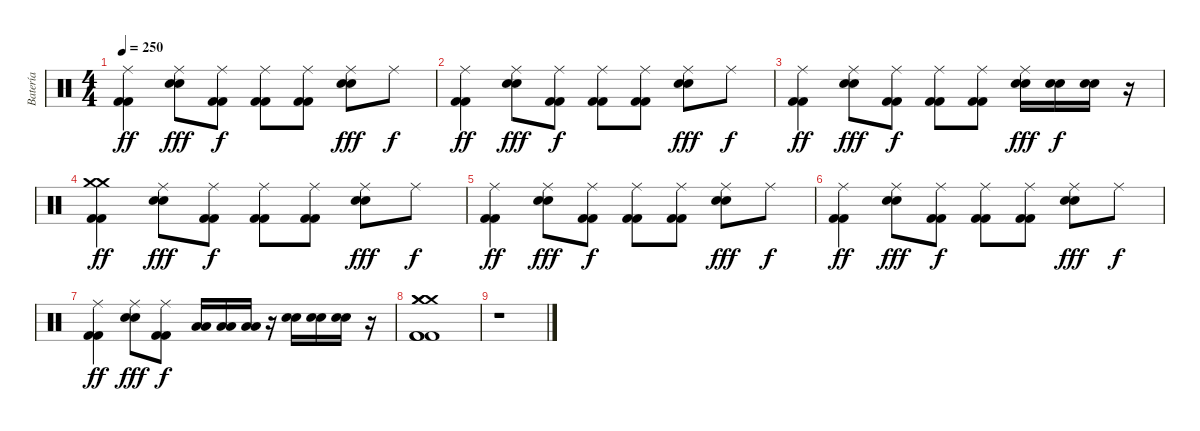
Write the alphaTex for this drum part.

\track ("Batería" "Batería") {instrument percussion}
\staff {score}
\articulation defaults
\ts (4 4)
\tempo 250
\clef neutral
\ks c
("Ride (middle)" "Kick (hit) 2" "Kick (hit) 2").4{dy ff} ("Ride (middle)" "Electric Snare (hit)" "Electric Snare (hit)").8{dy fff} ("Ride (middle)" "Kick (hit) 2" "Kick (hit) 2").8{dy f} ("Ride (middle)" "Kick (hit) 2" "Kick (hit) 2").8 ("Ride (middle)" "Kick (hit) 2" "Kick (hit) 2").8 ("Ride (middle)" "Electric Snare (hit)" "Electric Snare (hit)").8{dy fff} "Ride (middle)".8{dy f} |
("Ride (middle)" "Kick (hit) 2" "Kick (hit) 2").4{dy ff} ("Ride (middle)" "Electric Snare (hit)" "Electric Snare (hit)").8{dy fff} ("Ride (middle)" "Kick (hit) 2" "Kick (hit) 2").8{dy f} ("Ride (middle)" "Kick (hit) 2" "Kick (hit) 2").8 ("Ride (middle)" "Kick (hit) 2" "Kick (hit) 2").8 ("Ride (middle)" "Electric Snare (hit)" "Electric Snare (hit)").8{dy fff} "Ride (middle)".8{dy f} |
("Ride (middle)" "Kick (hit) 2" "Kick (hit) 2").4{dy ff} ("Ride (middle)" "Electric Snare (hit)" "Electric Snare (hit)").8{dy fff} ("Ride (middle)" "Kick (hit) 2" "Kick (hit) 2").8{dy f} ("Ride (middle)" "Kick (hit) 2" "Kick (hit) 2").8 ("Ride (middle)" "Kick (hit) 2" "Kick (hit) 2").8 ("Ride (middle)" "Electric Snare (hit)" "Electric Snare (hit)").16{dy fff} ("Electric Snare (hit)" "Electric Snare (hit)").16{dy f} ("Electric Snare (hit)" "Electric Snare (hit)").16 r.16 |
("Crash medium (hit)" "Crash medium (hit)" "Kick (hit) 2" "Kick (hit) 2").4{dy ff} ("Ride (middle)" "Electric Snare (hit)" "Electric Snare (hit)").8{dy fff} ("Ride (middle)" "Kick (hit) 2" "Kick (hit) 2").8{dy f} ("Ride (middle)" "Kick (hit) 2" "Kick (hit) 2").8 ("Ride (middle)" "Kick (hit) 2" "Kick (hit) 2").8 ("Ride (middle)" "Electric Snare (hit)" "Electric Snare (hit)").8{dy fff} "Ride (middle)".8{dy f} |
("Ride (middle)" "Kick (hit) 2" "Kick (hit) 2").4{dy ff} ("Ride (middle)" "Electric Snare (hit)" "Electric Snare (hit)").8{dy fff} ("Ride (middle)" "Kick (hit) 2" "Kick (hit) 2").8{dy f} ("Ride (middle)" "Kick (hit) 2" "Kick (hit) 2").8 ("Ride (middle)" "Kick (hit) 2" "Kick (hit) 2").8 ("Ride (middle)" "Electric Snare (hit)" "Electric Snare (hit)").8{dy fff} "Ride (middle)".8{dy f} |
("Ride (middle)" "Kick (hit) 2" "Kick (hit) 2").4{dy ff} ("Ride (middle)" "Electric Snare (hit)" "Electric Snare (hit)").8{dy fff} ("Ride (middle)" "Kick (hit) 2" "Kick (hit) 2").8{dy f} ("Ride (middle)" "Kick (hit) 2" "Kick (hit) 2").8 ("Ride (middle)" "Kick (hit) 2" "Kick (hit) 2").8 ("Ride (middle)" "Electric Snare (hit)" "Electric Snare (hit)").8{dy fff} "Ride (middle)".8{dy f} |
("Ride (middle)" "Kick (hit) 2" "Kick (hit) 2").4{dy ff} ("Ride (middle)" "Electric Snare (hit)" "Electric Snare (hit)").8{dy fff} ("Ride (middle)" "Kick (hit) 2" "Kick (hit) 2").8{dy f} ("Low Tom (hit)" "Low Tom (hit)").16 ("Low Tom (hit)" "Low Tom (hit)").16 ("Low Tom (hit)" "Low Tom (hit)").16 r.16 ("Electric Snare (hit)" "Electric Snare (hit)").16 ("Electric Snare (hit)" "Electric Snare (hit)").16 ("Electric Snare (hit)" "Electric Snare (hit)").16 r.16 |
("Crash medium (hit)" "Crash medium (hit)" "Crash medium (hit)" "Kick (hit) 2" "Kick (hit) 2" "Kick (hit) 2").1 |
r.1
